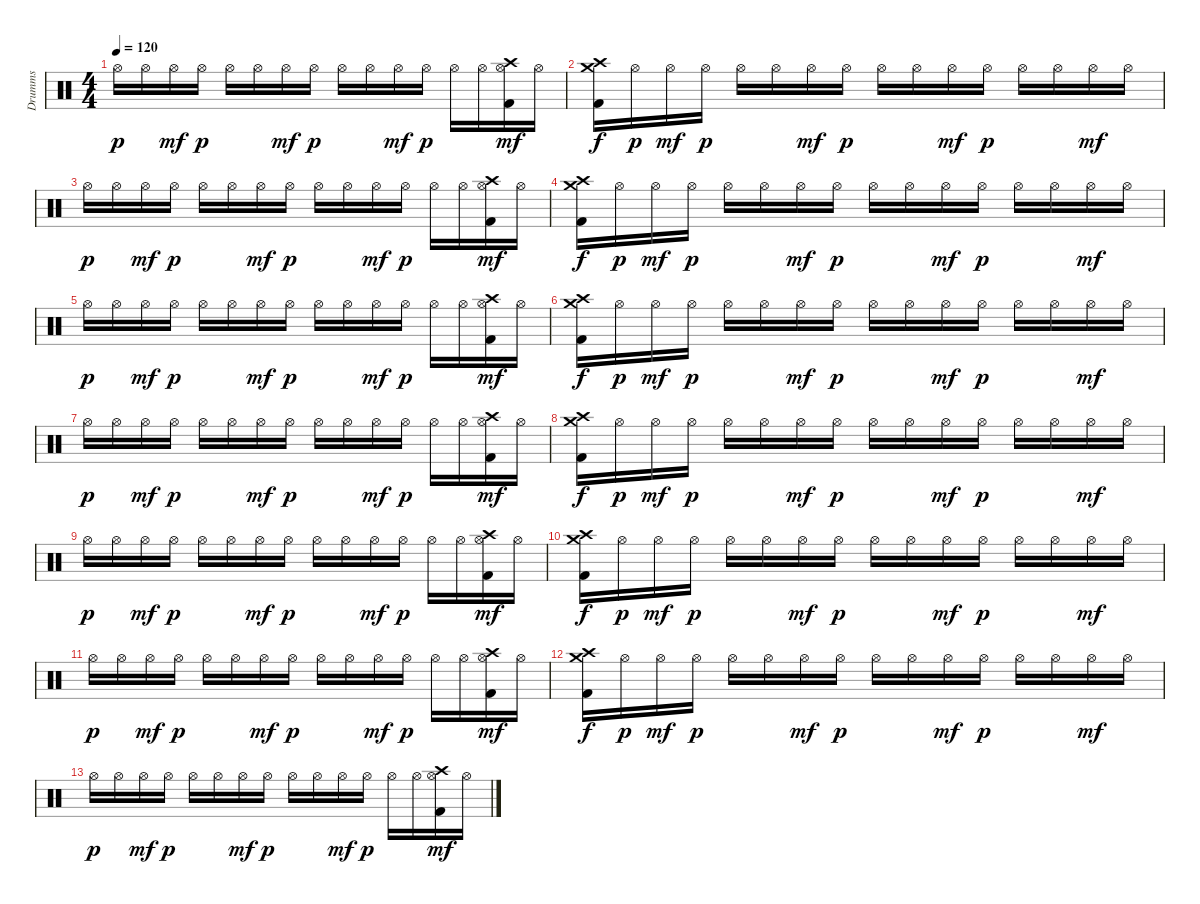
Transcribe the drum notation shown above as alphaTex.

\track ("Drumms" "Drumms") {instrument percussion}
\staff {score}
\articulation defaults
\ts (4 4)
\tempo 120
\clef neutral
\ks c "Hi-Hat (open)".16{dy p} "Hi-Hat (open)".16 "Hi-Hat (open)".16{dy mf} "Hi-Hat (open)".16{dy p} "Hi-Hat (open)".16 "Hi-Hat (open)".16 "Hi-Hat (open)".16{dy mf} "Hi-Hat (open)".16{dy p} "Hi-Hat (open)".16 "Hi-Hat (open)".16 "Hi-Hat (open)".16{dy mf} "Hi-Hat (open)".16{dy p} "Hi-Hat (open)".16 "Hi-Hat (open)".16
("Crash high (hit)" "Hi-Hat (open)" "Kick (hit) 2").16{dy mf} "Hi-Hat (open)".16 |
("Crash high (hit)" "Crash medium (hit)" "Kick (hit) 2").16{dy f} "Hi-Hat (open)".16{dy p} "Hi-Hat (open)".16{dy mf} "Hi-Hat (open)".16{dy p} "Hi-Hat (open)".16 "Hi-Hat (open)".16 "Hi-Hat (open)".16{dy mf} "Hi-Hat (open)".16{dy p} "Hi-Hat (open)".16 "Hi-Hat (open)".16 "Hi-Hat (open)".16{dy mf} "Hi-Hat (open)".16{dy p} "Hi-Hat (open)".16 "Hi-Hat (open)".16 "Hi-Hat (open)".16{dy mf} "Hi-Hat (open)".16 |
"Hi-Hat (open)".16{dy p} "Hi-Hat (open)".16 "Hi-Hat (open)".16{dy mf} "Hi-Hat (open)".16{dy p} "Hi-Hat (open)".16 "Hi-Hat (open)".16 "Hi-Hat (open)".16{dy mf} "Hi-Hat (open)".16{dy p} "Hi-Hat (open)".16 "Hi-Hat (open)".16 "Hi-Hat (open)".16{dy mf} "Hi-Hat (open)".16{dy p} "Hi-Hat (open)".16 "Hi-Hat (open)".16 ("Crash high (hit)" "Hi-Hat (open)" "Kick (hit) 2").16{dy mf} "Hi-Hat (open)".16 |
("Crash high (hit)" "Crash medium (hit)" "Kick (hit) 2").16{dy f} "Hi-Hat (open)".16{dy p} "Hi-Hat (open)".16{dy mf} "Hi-Hat (open)".16{dy p} "Hi-Hat (open)".16 "Hi-Hat (open)".16 "Hi-Hat (open)".16{dy mf} "Hi-Hat (open)".16{dy p} "Hi-Hat (open)".16 "Hi-Hat (open)".16 "Hi-Hat (open)".16{dy mf} "Hi-Hat (open)".16{dy p} "Hi-Hat (open)".16 "Hi-Hat (open)".16 "Hi-Hat (open)".16{dy mf} "Hi-Hat (open)".16 |
"Hi-Hat (open)".16{dy p} "Hi-Hat (open)".16 "Hi-Hat (open)".16{dy mf} "Hi-Hat (open)".16{dy p} "Hi-Hat (open)".16 "Hi-Hat (open)".16 "Hi-Hat (open)".16{dy mf} "Hi-Hat (open)".16{dy p} "Hi-Hat (open)".16 "Hi-Hat (open)".16 "Hi-Hat (open)".16{dy mf} "Hi-Hat (open)".16{dy p} "Hi-Hat (open)".16 "Hi-Hat (open)".16 ("Crash high (hit)" "Hi-Hat (open)" "Kick (hit) 2").16{dy mf} "Hi-Hat (open)".16 |
("Crash high (hit)" "Crash medium (hit)" "Kick (hit) 2").16{dy f} "Hi-Hat (open)".16{dy p} "Hi-Hat (open)".16{dy mf} "Hi-Hat (open)".16{dy p} "Hi-Hat (open)".16 "Hi-Hat (open)".16 "Hi-Hat (open)".16{dy mf} "Hi-Hat (open)".16{dy p} "Hi-Hat (open)".16 "Hi-Hat (open)".16 "Hi-Hat (open)".16{dy mf} "Hi-Hat (open)".16{dy p} "Hi-Hat (open)".16 "Hi-Hat (open)".16 "Hi-Hat (open)".16{dy mf} "Hi-Hat (open)".16 |
"Hi-Hat (open)".16{dy p} "Hi-Hat (open)".16 "Hi-Hat (open)".16{dy mf} "Hi-Hat (open)".16{dy p} "Hi-Hat (open)".16 "Hi-Hat (open)".16 "Hi-Hat (open)".16{dy mf} "Hi-Hat (open)".16{dy p} "Hi-Hat (open)".16 "Hi-Hat (open)".16 "Hi-Hat (open)".16{dy mf} "Hi-Hat (open)".16{dy p} "Hi-Hat (open)".16 "Hi-Hat (open)".16 ("Crash high (hit)" "Hi-Hat (open)" "Kick (hit) 2").16{dy mf} "Hi-Hat (open)".16 |
("Crash high (hit)" "Crash medium (hit)" "Kick (hit) 2").16{dy f} "Hi-Hat (open)".16{dy p} "Hi-Hat (open)".16{dy mf} "Hi-Hat (open)".16{dy p} "Hi-Hat (open)".16 "Hi-Hat (open)".16 "Hi-Hat (open)".16{dy mf} "Hi-Hat (open)".16{dy p} "Hi-Hat (open)".16 "Hi-Hat (open)".16 "Hi-Hat (open)".16{dy mf} "Hi-Hat (open)".16{dy p} "Hi-Hat (open)".16 "Hi-Hat (open)".16 "Hi-Hat (open)".16{dy mf} "Hi-Hat (open)".16 |
"Hi-Hat (open)".16{dy p} "Hi-Hat (open)".16 "Hi-Hat (open)".16{dy mf} "Hi-Hat (open)".16{dy p} "Hi-Hat (open)".16 "Hi-Hat (open)".16 "Hi-Hat (open)".16{dy mf} "Hi-Hat (open)".16{dy p} "Hi-Hat (open)".16 "Hi-Hat (open)".16 "Hi-Hat (open)".16{dy mf} "Hi-Hat (open)".16{dy p} "Hi-Hat (open)".16 "Hi-Hat (open)".16 ("Crash high (hit)" "Hi-Hat (open)" "Kick (hit) 2").16{dy mf} "Hi-Hat (open)".16 |
("Crash high (hit)" "Crash medium (hit)" "Kick (hit) 2").16{dy f} "Hi-Hat (open)".16{dy p} "Hi-Hat (open)".16{dy mf} "Hi-Hat (open)".16{dy p} "Hi-Hat (open)".16 "Hi-Hat (open)".16 "Hi-Hat (open)".16{dy mf} "Hi-Hat (open)".16{dy p} "Hi-Hat (open)".16 "Hi-Hat (open)".16 "Hi-Hat (open)".16{dy mf} "Hi-Hat (open)".16{dy p} "Hi-Hat (open)".16 "Hi-Hat (open)".16 "Hi-Hat (open)".16{dy mf} "Hi-Hat (open)".16 |
"Hi-Hat (open)".16{dy p} "Hi-Hat (open)".16 "Hi-Hat (open)".16{dy mf} "Hi-Hat (open)".16{dy p} "Hi-Hat (open)".16 "Hi-Hat (open)".16 "Hi-Hat (open)".16{dy mf} "Hi-Hat (open)".16{dy p} "Hi-Hat (open)".16 "Hi-Hat (open)".16 "Hi-Hat (open)".16{dy mf} "Hi-Hat (open)".16{dy p} "Hi-Hat (open)".16 "Hi-Hat (open)".16 ("Crash high (hit)" "Hi-Hat (open)" "Kick (hit) 2").16{dy mf} "Hi-Hat (open)".16 |
("Crash high (hit)" "Crash medium (hit)" "Kick (hit) 2").16{dy f} "Hi-Hat (open)".16{dy p} "Hi-Hat (open)".16{dy mf} "Hi-Hat (open)".16{dy p} "Hi-Hat (open)".16 "Hi-Hat (open)".16 "Hi-Hat (open)".16{dy mf} "Hi-Hat (open)".16{dy p} "Hi-Hat (open)".16 "Hi-Hat (open)".16 "Hi-Hat (open)".16{dy mf} "Hi-Hat (open)".16{dy p} "Hi-Hat (open)".16 "Hi-Hat (open)".16 "Hi-Hat (open)".16{dy mf} "Hi-Hat (open)".16 |
"Hi-Hat (open)".16{dy p} "Hi-Hat (open)".16 "Hi-Hat (open)".16{dy mf} "Hi-Hat (open)".16{dy p} "Hi-Hat (open)".16 "Hi-Hat (open)".16 "Hi-Hat (open)".16{dy mf} "Hi-Hat (open)".16{dy p} "Hi-Hat (open)".16 "Hi-Hat (open)".16 "Hi-Hat (open)".16{dy mf} "Hi-Hat (open)".16{dy p} "Hi-Hat (open)".16 "Hi-Hat (open)".16 ("Crash high (hit)" "Hi-Hat (open)" "Kick (hit) 2").16{dy mf} "Hi-Hat (open)".16
